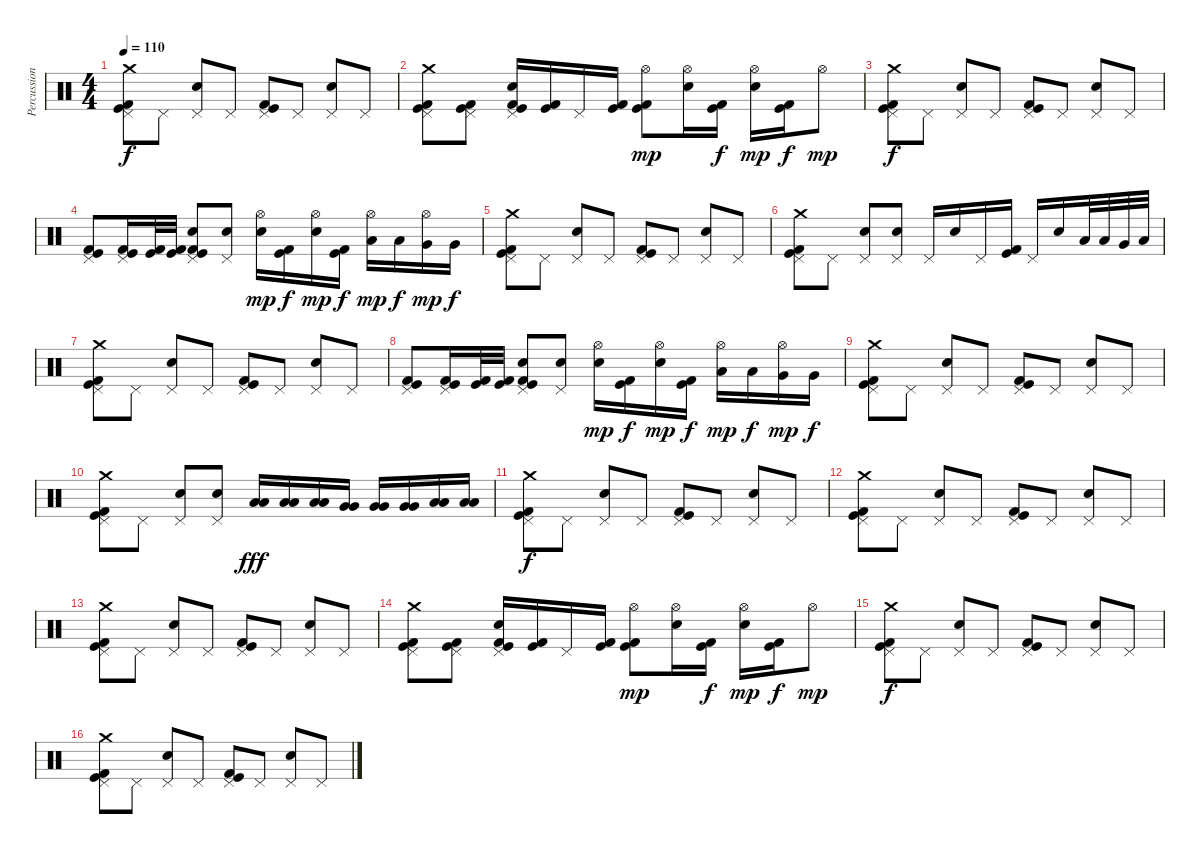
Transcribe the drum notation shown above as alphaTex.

\track ("Percussions" "Percussion") {instrument percussion}
\staff {score}
\articulation defaults
\ts (4 4)
\tempo 110
\clef neutral
\ks c
("Crash medium (hit)" "Pedal Hi-Hat (hit)" "Kick (hit)" "Kick (hit) 2").8{dy f} "Pedal Hi-Hat (hit)".8 ("Pedal Hi-Hat (hit)" "Electric Snare (hit)").8 "Pedal Hi-Hat (hit)".8 ("Pedal Hi-Hat (hit)" "Kick (hit)" "Kick (hit) 2").8 "Pedal Hi-Hat (hit)".8 ("Pedal Hi-Hat (hit)" "Electric Snare (hit)").8 "Pedal Hi-Hat (hit)".8 |
("Crash medium (hit)" "Pedal Hi-Hat (hit)" "Kick (hit)" "Kick (hit) 2").8 ("Pedal Hi-Hat (hit)" "Kick (hit)" "Kick (hit) 2").8 ("Pedal Hi-Hat (hit)" "Electric Snare (hit)" "Kick (hit)" "Kick (hit) 2").16 ("Kick (hit)" "Kick (hit) 2").16 "Pedal Hi-Hat (hit)".16 ("Kick (hit)" "Kick (hit) 2").16 ("Hi-Hat (open)" "Kick (hit)" "Kick (hit) 2").8{dy mp} ("Hi-Hat (open)" "Electric Snare (hit)").16 ("Kick (hit)" "Kick (hit) 2").16{dy f} ("Hi-Hat (open)" "Electric Snare (hit)").16{dy mp} ("Kick (hit)" "Kick (hit) 2").16{dy f} "Hi-Hat (open)".8{dy mp} |
("Crash medium (hit)" "Pedal Hi-Hat (hit)" "Kick (hit)" "Kick (hit) 2").8{dy f} "Pedal Hi-Hat (hit)".8 ("Pedal Hi-Hat (hit)" "Electric Snare (hit)").8 "Pedal Hi-Hat (hit)".8 ("Pedal Hi-Hat (hit)" "Kick (hit)" "Kick (hit) 2").8 "Pedal Hi-Hat (hit)".8 ("Pedal Hi-Hat (hit)" "Electric Snare (hit)").8 "Pedal Hi-Hat (hit)".8 |
("Pedal Hi-Hat (hit)" "Kick (hit)" "Kick (hit) 2").8 ("Pedal Hi-Hat (hit)" "Kick (hit)" "Kick (hit) 2").16 ("Kick (hit)" "Kick (hit) 2").32 ("Kick (hit)" "Kick (hit) 2").32 ("Pedal Hi-Hat (hit)" "Electric Snare (hit)" "Kick (hit)" "Kick (hit) 2").8 ("Pedal Hi-Hat (hit)" "Electric Snare (hit)").8 ("Hi-Hat (open)" "Electric Snare (hit)").16{dy mp} ("Kick (hit)" "Kick (hit) 2").16{dy f} ("Hi-Hat (open)" "Electric Snare (hit)").16{dy mp} ("Kick (hit)" "Kick (hit) 2").16{dy f} ("Hi-Hat (open)" "Low Tom (hit)").16{dy mp} "Low Tom (hit)".16{dy f} ("Hi-Hat (open)" "Very Low Tom (hit)").16{dy mp} "Very Low Tom (hit)".16{dy f} |
("Crash medium (hit)" "Pedal Hi-Hat (hit)" "Kick (hit)" "Kick (hit) 2").8 "Pedal Hi-Hat (hit)".8 ("Pedal Hi-Hat (hit)" "Electric Snare (hit)").8 "Pedal Hi-Hat (hit)".8 ("Pedal Hi-Hat (hit)" "Kick (hit)" "Kick (hit) 2").8 "Pedal Hi-Hat (hit)".8 ("Pedal Hi-Hat (hit)" "Electric Snare (hit)").8 "Pedal Hi-Hat (hit)".8 |
("Crash medium (hit)" "Pedal Hi-Hat (hit)" "Kick (hit)" "Kick (hit) 2").8 "Pedal Hi-Hat (hit)".8 ("Pedal Hi-Hat (hit)" "Electric Snare (hit)").8 ("Pedal Hi-Hat (hit)" "Electric Snare (hit)").8 "Pedal Hi-Hat (hit)".16 "Electric Snare (hit)".16 "Pedal Hi-Hat (hit)".16 ("Kick (hit)" "Kick (hit) 2").16 "Pedal Hi-Hat (hit)".16 "Electric Snare (hit)".16 "Low Tom (hit)".32 "Low Tom (hit)".32 "Very Low Tom (hit)".32 "Low Floor Tom (hit)".32 |
("Crash medium (hit)" "Pedal Hi-Hat (hit)" "Kick (hit)" "Kick (hit) 2").8 "Pedal Hi-Hat (hit)".8 ("Pedal Hi-Hat (hit)" "Electric Snare (hit)").8 "Pedal Hi-Hat (hit)".8 ("Pedal Hi-Hat (hit)" "Kick (hit)" "Kick (hit) 2").8 "Pedal Hi-Hat (hit)".8 ("Pedal Hi-Hat (hit)" "Electric Snare (hit)").8 "Pedal Hi-Hat (hit)".8 |
("Pedal Hi-Hat (hit)" "Kick (hit)" "Kick (hit) 2").8 ("Pedal Hi-Hat (hit)" "Kick (hit)" "Kick (hit) 2").16 ("Kick (hit)" "Kick (hit) 2").32 ("Kick (hit)" "Kick (hit) 2").32 ("Pedal Hi-Hat (hit)" "Electric Snare (hit)" "Kick (hit)" "Kick (hit) 2").8 ("Pedal Hi-Hat (hit)" "Electric Snare (hit)").8 ("Hi-Hat (open)" "Electric Snare (hit)").16{dy mp} ("Kick (hit)" "Kick (hit) 2").16{dy f} ("Hi-Hat (open)" "Electric Snare (hit)").16{dy mp} ("Kick (hit)" "Kick (hit) 2").16{dy f} ("Hi-Hat (open)" "Low Tom (hit)").16{dy mp} "Low Tom (hit)".16{dy f} ("Hi-Hat (open)" "Very Low Tom (hit)").16{dy mp} "Very Low Tom (hit)".16{dy f} |
("Crash medium (hit)" "Pedal Hi-Hat (hit)" "Kick (hit)" "Kick (hit) 2").8 "Pedal Hi-Hat (hit)".8 ("Pedal Hi-Hat (hit)" "Electric Snare (hit)").8 "Pedal Hi-Hat (hit)".8 ("Pedal Hi-Hat (hit)" "Kick (hit)" "Kick (hit) 2").8 "Pedal Hi-Hat (hit)".8 ("Pedal Hi-Hat (hit)" "Electric Snare (hit)").8 "Pedal Hi-Hat (hit)".8 |
("Crash medium (hit)" "Pedal Hi-Hat (hit)" "Kick (hit)" "Kick (hit) 2").8 "Pedal Hi-Hat (hit)".8 ("Pedal Hi-Hat (hit)" "Electric Snare (hit)").8 ("Pedal Hi-Hat (hit)" "Electric Snare (hit)").8 ("Low Tom (hit)" "Low Tom (hit)").16{dy fff} ("Low Tom (hit)" "Low Tom (hit)").16 ("Low Tom (hit)" "Low Tom (hit)").16 ("Very Low Tom (hit)" "Very Low Tom (hit)").16 ("Very Low Tom (hit)" "Very Low Tom (hit)").16 ("Very Low Tom (hit)" "Very Low Tom (hit)").16 ("Low Floor Tom (hit)" "Low Floor Tom (hit)").16 ("Low Floor Tom (hit)" "Low Floor Tom (hit)").16 |
("Crash medium (hit)" "Pedal Hi-Hat (hit)" "Kick (hit)" "Kick (hit) 2").8{dy f} "Pedal Hi-Hat (hit)".8 ("Pedal Hi-Hat (hit)" "Electric Snare (hit)").8 "Pedal Hi-Hat (hit)".8 ("Pedal Hi-Hat (hit)" "Kick (hit)" "Kick (hit) 2").8 "Pedal Hi-Hat (hit)".8 ("Pedal Hi-Hat (hit)" "Electric Snare (hit)").8 "Pedal Hi-Hat (hit)".8 |
("Crash medium (hit)" "Pedal Hi-Hat (hit)" "Kick (hit)" "Kick (hit) 2").8 "Pedal Hi-Hat (hit)".8 ("Pedal Hi-Hat (hit)" "Electric Snare (hit)").8 "Pedal Hi-Hat (hit)".8 ("Pedal Hi-Hat (hit)" "Kick (hit)" "Kick (hit) 2").8 "Pedal Hi-Hat (hit)".8 ("Pedal Hi-Hat (hit)" "Electric Snare (hit)").8 "Pedal Hi-Hat (hit)".8 |
("Crash medium (hit)" "Pedal Hi-Hat (hit)" "Kick (hit)" "Kick (hit) 2").8 "Pedal Hi-Hat (hit)".8 ("Pedal Hi-Hat (hit)" "Electric Snare (hit)").8 "Pedal Hi-Hat (hit)".8 ("Pedal Hi-Hat (hit)" "Kick (hit)" "Kick (hit) 2").8 "Pedal Hi-Hat (hit)".8 ("Pedal Hi-Hat (hit)" "Electric Snare (hit)").8 "Pedal Hi-Hat (hit)".8 |
("Crash medium (hit)" "Pedal Hi-Hat (hit)" "Kick (hit)" "Kick (hit) 2").8 ("Pedal Hi-Hat (hit)" "Kick (hit)" "Kick (hit) 2").8 ("Pedal Hi-Hat (hit)" "Electric Snare (hit)" "Kick (hit)" "Kick (hit) 2").16 ("Kick (hit)" "Kick (hit) 2").16 "Pedal Hi-Hat (hit)".16 ("Kick (hit)" "Kick (hit) 2").16 ("Hi-Hat (open)" "Kick (hit)" "Kick (hit) 2").8{dy mp} ("Hi-Hat (open)" "Electric Snare (hit)").16 ("Kick (hit)" "Kick (hit) 2").16{dy f} ("Hi-Hat (open)" "Electric Snare (hit)").16{dy mp} ("Kick (hit)" "Kick (hit) 2").16{dy f} "Hi-Hat (open)".8{dy mp} |
("Crash medium (hit)" "Pedal Hi-Hat (hit)" "Kick (hit)" "Kick (hit) 2").8{dy f} "Pedal Hi-Hat (hit)".8 ("Pedal Hi-Hat (hit)" "Electric Snare (hit)").8 "Pedal Hi-Hat (hit)".8 ("Pedal Hi-Hat (hit)" "Kick (hit)" "Kick (hit) 2").8 "Pedal Hi-Hat (hit)".8 ("Pedal Hi-Hat (hit)" "Electric Snare (hit)").8 "Pedal Hi-Hat (hit)".8 |
("Crash medium (hit)" "Pedal Hi-Hat (hit)" "Kick (hit)" "Kick (hit) 2").8 "Pedal Hi-Hat (hit)".8 ("Pedal Hi-Hat (hit)" "Electric Snare (hit)").8 "Pedal Hi-Hat (hit)".8 ("Pedal Hi-Hat (hit)" "Kick (hit)" "Kick (hit) 2").8 "Pedal Hi-Hat (hit)".8 ("Pedal Hi-Hat (hit)" "Electric Snare (hit)").8 "Pedal Hi-Hat (hit)".8
